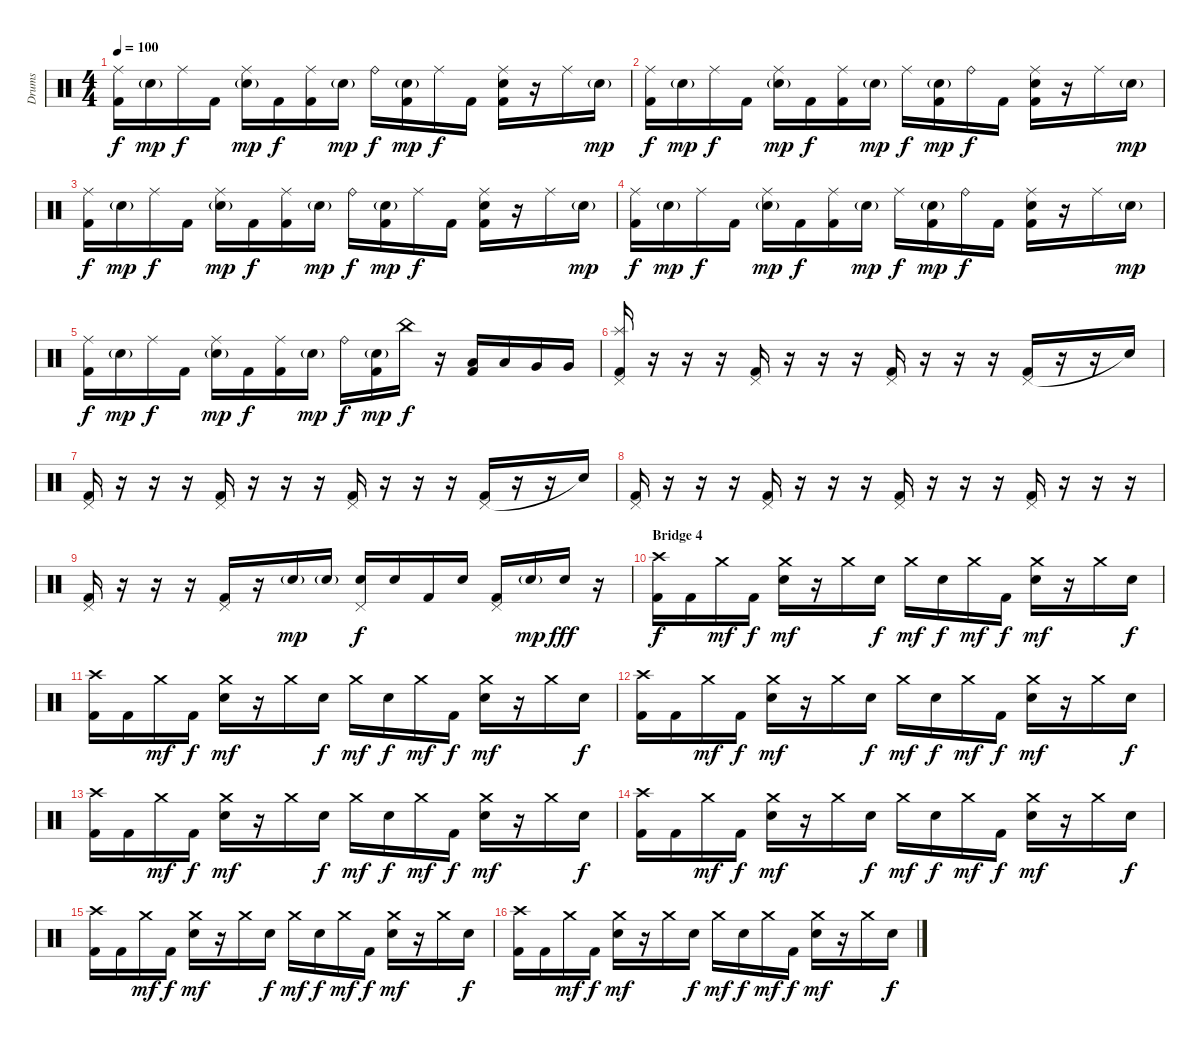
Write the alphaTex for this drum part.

\track ("Drums" "Drums") {instrument percussion}
\staff {score}
\articulation defaults
\ts (4 4)
\tempo 100
\clef neutral
\ks c
("Ride (middle)" "Kick (hit) 2").16{dy f} "Snare (hit) 2"{g}.16{dy mp} "Ride (middle)".16{dy f} "Kick (hit) 2".16 ("Ride (middle)" "Snare (hit) 2"{g}).16{dy mp} "Kick (hit) 2".16{dy f} ("Ride (middle)" "Kick (hit) 2").16 "Snare (hit) 2"{g}.16{dy mp} "Ride (bell)".16{dy f} ("Snare (hit) 2"{g} "Kick (hit) 2").16{dy mp} "Ride (middle)".16{dy f} "Kick (hit) 2".16 ("Ride (middle)" "Snare (hit) 2" "Kick (hit) 2").16 r.16 "Ride (middle)".16 "Snare (hit) 2"{g}.16{dy mp} |
("Ride (middle)" "Kick (hit) 2").16{dy f} "Snare (hit) 2"{g}.16{dy mp} "Ride (middle)".16{dy f} "Kick (hit) 2".16 ("Ride (middle)" "Snare (hit) 2"{g}).16{dy mp} "Kick (hit) 2".16{dy f} ("Ride (middle)" "Kick (hit) 2").16 "Snare (hit) 2"{g}.16{dy mp} "Ride (middle)".16{dy f} ("Snare (hit) 2"{g} "Kick (hit) 2").16{dy mp} "Ride (bell)".16{dy f} "Kick (hit) 2".16 ("Ride (middle)" "Snare (hit) 2" "Kick (hit) 2").16 r.16 "Ride (middle)".16 "Snare (hit) 2"{g}.16{dy mp} |
("Ride (middle)" "Kick (hit) 2").16{dy f} "Snare (hit) 2"{g}.16{dy mp} "Ride (middle)".16{dy f} "Kick (hit) 2".16 ("Ride (middle)" "Snare (hit) 2"{g}).16{dy mp} "Kick (hit) 2".16{dy f} ("Ride (middle)" "Kick (hit) 2").16 "Snare (hit) 2"{g}.16{dy mp} "Ride (bell)".16{dy f} ("Snare (hit) 2"{g} "Kick (hit) 2").16{dy mp} "Ride (middle)".16{dy f} "Kick (hit) 2".16 ("Ride (middle)" "Snare (hit) 2" "Kick (hit) 2").16 r.16 "Ride (middle)".16 "Snare (hit) 2"{g}.16{dy mp} |
("Ride (middle)" "Kick (hit) 2").16{dy f} "Snare (hit) 2"{g}.16{dy mp} "Ride (middle)".16{dy f} "Kick (hit) 2".16 ("Ride (middle)" "Snare (hit) 2"{g}).16{dy mp} "Kick (hit) 2".16{dy f} ("Ride (middle)" "Kick (hit) 2").16 "Snare (hit) 2"{g}.16{dy mp} "Ride (middle)".16{dy f} ("Snare (hit) 2"{g} "Kick (hit) 2").16{dy mp} "Ride (bell)".16{dy f} "Kick (hit) 2".16 ("Ride (middle)" "Snare (hit) 2" "Kick (hit) 2").16 r.16 "Ride (middle)".16 "Snare (hit) 2"{g}.16{dy mp} |
("Ride (middle)" "Kick (hit) 2").16{dy f} "Snare (hit) 2"{g}.16{dy mp} "Ride (middle)".16{dy f} "Kick (hit) 2".16 ("Ride (middle)" "Snare (hit) 2"{g}).16{dy mp} "Kick (hit) 2".16{dy f} ("Ride (middle)" "Kick (hit) 2").16 "Snare (hit) 2"{g}.16{dy mp} "Ride (bell)".16{dy f} ("Snare (hit) 2"{g} "Kick (hit) 2").16{dy mp} "China (hit)".16{dy f} r.16 ("Low Tom (hit)" "Kick (hit) 2").16 "Low Tom (hit)".16 "Very Low Tom (hit)".16 "Very Low Tom (hit)".16 |
("Splash (hit)" "Pedal Hi-Hat (hit)" "Kick (hit) 2").16 r.16 r.16 r.16 ("Pedal Hi-Hat (hit)" "Kick (hit) 2").16 r.16 r.16 r.16 ("Pedal Hi-Hat (hit)" "Kick (hit) 2").16 r.16 r.16 r.16 ("Pedal Hi-Hat (hit)" "Kick (hit) 2").16 r.16 r.16 "Snare (hit)"{t}.16 |
("Pedal Hi-Hat (hit)" "Kick (hit) 2").16 r.16 r.16 r.16 ("Pedal Hi-Hat (hit)" "Kick (hit) 2").16 r.16 r.16 r.16 ("Pedal Hi-Hat (hit)" "Kick (hit) 2").16 r.16 r.16 r.16 ("Pedal Hi-Hat (hit)" "Kick (hit) 2").16 r.16 r.16 "Snare (hit)"{t}.16 |
("Pedal Hi-Hat (hit)" "Kick (hit) 2").16 r.16 r.16 r.16 ("Pedal Hi-Hat (hit)" "Kick (hit) 2").16 r.16 r.16 r.16 ("Pedal Hi-Hat (hit)" "Kick (hit) 2").16 r.16 r.16 r.16 ("Pedal Hi-Hat (hit)" "Kick (hit) 2").16 r.16 r.16 r.16 |
("Pedal Hi-Hat (hit)" "Kick (hit) 2").16 r.16 r.16 r.16 ("Pedal Hi-Hat (hit)" "Kick (hit) 2").16 r.16 "Snare (hit) 2"{g}.16{dy mp} "Snare (hit) 2"{g}.16 ("Pedal Hi-Hat (hit)" "Snare (hit) 2").16{dy f} "Snare (hit) 2".16 "Kick (hit) 2".16 "Snare (hit) 2".16 ("Pedal Hi-Hat (hit)" "Kick (hit) 2").16 "Snare (hit) 2"{g}.16{dy mp} "Snare (hit) 2".16{dy fff} r.16 |
\section ("" "Bridge 4")
("Crash high (hit)" "Kick (hit) 2").16{dy f} "Kick (hit) 2".16 "Crash medium (hit)".16{dy mf} "Kick (hit) 2".16{dy f} ("Crash medium (hit)" "Snare (hit) 2").16{dy mf} r.16 "Crash medium (hit)".16 "Snare (hit) 2".16{dy f} "Crash medium (hit)".16{dy mf} "Snare (hit) 2".16{dy f} "Crash medium (hit)".16{dy mf} "Kick (hit) 2".16{dy f} ("Crash medium (hit)" "Snare (hit) 2").16{dy mf} r.16 "Crash medium (hit)".16 "Snare (hit) 2".16{dy f} |
("Crash high (hit)" "Kick (hit) 2").16 "Kick (hit) 2".16 "Crash medium (hit)".16{dy mf} "Kick (hit) 2".16{dy f} ("Crash medium (hit)" "Snare (hit) 2").16{dy mf} r.16 "Crash medium (hit)".16 "Snare (hit) 2".16{dy f} "Crash medium (hit)".16{dy mf} "Snare (hit) 2".16{dy f} "Crash medium (hit)".16{dy mf} "Kick (hit) 2".16{dy f} ("Crash medium (hit)" "Snare (hit) 2").16{dy mf} r.16 "Crash medium (hit)".16 "Snare (hit) 2".16{dy f} |
("Crash high (hit)" "Kick (hit) 2").16 "Kick (hit) 2".16 "Crash medium (hit)".16{dy mf} "Kick (hit) 2".16{dy f} ("Crash medium (hit)" "Snare (hit) 2").16{dy mf} r.16 "Crash medium (hit)".16 "Snare (hit) 2".16{dy f} "Crash medium (hit)".16{dy mf} "Snare (hit) 2".16{dy f} "Crash medium (hit)".16{dy mf} "Kick (hit) 2".16{dy f} ("Crash medium (hit)" "Snare (hit) 2").16{dy mf} r.16 "Crash medium (hit)".16 "Snare (hit) 2".16{dy f} |
("Crash high (hit)" "Kick (hit) 2").16 "Kick (hit) 2".16 "Crash medium (hit)".16{dy mf} "Kick (hit) 2".16{dy f} ("Crash medium (hit)" "Snare (hit) 2").16{dy mf} r.16 "Crash medium (hit)".16 "Snare (hit) 2".16{dy f} "Crash medium (hit)".16{dy mf} "Snare (hit) 2".16{dy f} "Crash medium (hit)".16{dy mf} "Kick (hit) 2".16{dy f} ("Crash medium (hit)" "Snare (hit) 2").16{dy mf} r.16 "Crash medium (hit)".16 "Snare (hit) 2".16{dy f} |
("Crash high (hit)" "Kick (hit) 2").16 "Kick (hit) 2".16 "Crash medium (hit)".16{dy mf} "Kick (hit) 2".16{dy f} ("Crash medium (hit)" "Snare (hit) 2").16{dy mf} r.16 "Crash medium (hit)".16 "Snare (hit) 2".16{dy f} "Crash medium (hit)".16{dy mf} "Snare (hit) 2".16{dy f} "Crash medium (hit)".16{dy mf} "Kick (hit) 2".16{dy f} ("Crash medium (hit)" "Snare (hit) 2").16{dy mf} r.16 "Crash medium (hit)".16 "Snare (hit) 2".16{dy f} |
("Crash high (hit)" "Kick (hit) 2").16 "Kick (hit) 2".16 "Crash medium (hit)".16{dy mf} "Kick (hit) 2".16{dy f} ("Crash medium (hit)" "Snare (hit) 2").16{dy mf} r.16 "Crash medium (hit)".16 "Snare (hit) 2".16{dy f} "Crash medium (hit)".16{dy mf} "Snare (hit) 2".16{dy f} "Crash medium (hit)".16{dy mf} "Kick (hit) 2".16{dy f} ("Crash medium (hit)" "Snare (hit) 2").16{dy mf} r.16 "Crash medium (hit)".16 "Snare (hit) 2".16{dy f} |
("Crash high (hit)" "Kick (hit) 2").16 "Kick (hit) 2".16 "Crash medium (hit)".16{dy mf} "Kick (hit) 2".16{dy f} ("Crash medium (hit)" "Snare (hit) 2").16{dy mf} r.16 "Crash medium (hit)".16 "Snare (hit) 2".16{dy f} "Crash medium (hit)".16{dy mf} "Snare (hit) 2".16{dy f} "Crash medium (hit)".16{dy mf} "Kick (hit) 2".16{dy f} ("Crash medium (hit)" "Snare (hit) 2").16{dy mf} r.16 "Crash medium (hit)".16 "Snare (hit) 2".16{dy f}
